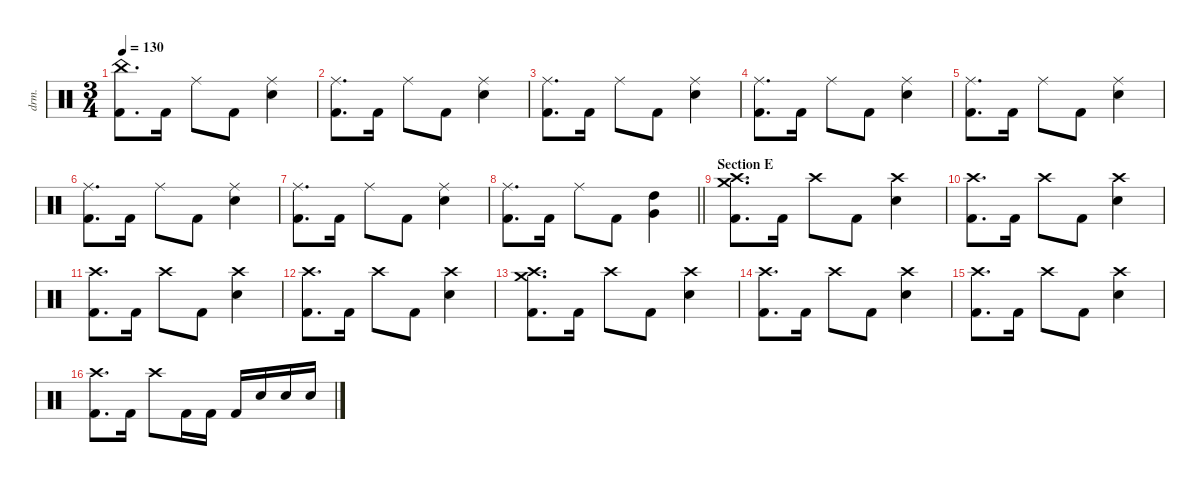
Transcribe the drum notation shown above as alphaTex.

\defaultSystemsLayout 4
\hideDynamics
\bracketExtendMode nobrackets
\otherSystemsTrackNameOrientation horizontal
\track ("Percussion" "drm.") {instrument percussion}
\staff {score}
\articulation defaults
\ts (3 4)
\tempo 130
\clef neutral
\ks c
("China (hit)" "Kick (hit) 2").8{d dy f beam Down} "Kick (hit) 2".16{beam Down} "Ride (middle)".8{beam Down} "Kick (hit) 2".8{beam Down} ("Ride (middle)" "Snare (hit) 2").4{beam Down} |
("Ride (middle)" "Kick (hit) 2").8{d beam Down} "Kick (hit) 2".16{beam Down} "Ride (middle)".8{beam Down} "Kick (hit) 2".8{beam Down} ("Ride (middle)" "Snare (hit) 2").4{beam Down} |
("Ride (middle)" "Kick (hit) 2").8{d beam Down} "Kick (hit) 2".16{beam Down} "Ride (middle)".8{beam Down} "Kick (hit) 2".8{beam Down} ("Ride (middle)" "Snare (hit) 2").4{beam Down} |
("Ride (middle)" "Kick (hit) 2").8{d beam Down} "Kick (hit) 2".16{beam Down} "Ride (middle)".8{beam Down} "Kick (hit) 2".8{beam Down} ("Ride (middle)" "Snare (hit) 2").4{beam Down} |
("Ride (middle)" "Kick (hit) 2").8{d beam Down} "Kick (hit) 2".16{beam Down} "Ride (middle)".8{beam Down} "Kick (hit) 2".8{beam Down} ("Ride (middle)" "Snare (hit) 2").4{beam Down} |
("Ride (middle)" "Kick (hit) 2").8{d beam Down} "Kick (hit) 2".16{beam Down} "Ride (middle)".8{beam Down} "Kick (hit) 2".8{beam Down} ("Ride (middle)" "Snare (hit) 2").4{beam Down} |
("Ride (middle)" "Kick (hit) 2").8{d beam Down} "Kick (hit) 2".16{beam Down} "Ride (middle)".8{beam Down} "Kick (hit) 2".8{beam Down} ("Ride (middle)" "Snare (hit) 2").4{beam Down} |
\barLineRight lightlight
("Ride (middle)" "Kick (hit) 2").8{d beam Down} "Kick (hit) 2".16{beam Down} "Ride (middle)".8{beam Down} "Kick (hit) 2".8{beam Down} ("High Tom (hit)" "Very Low Tom (hit)").4{beam Down} |
\section ("" "Section E")
("Crash medium (hit)" "Crash high (hit)" "Kick (hit) 2").8{d beam Down} "Kick (hit) 2".16{beam Down} "Crash high (hit)".8{beam Down} "Kick (hit) 2".8{beam Down} ("Crash high (hit)" "Snare (hit) 2").4{beam Down} |
("Crash high (hit)" "Kick (hit) 2").8{d beam Down} "Kick (hit) 2".16{beam Down} "Crash high (hit)".8{beam Down} "Kick (hit) 2".8{beam Down} ("Crash high (hit)" "Snare (hit) 2").4{beam Down} |
("Crash high (hit)" "Kick (hit) 2").8{d beam Down} "Kick (hit) 2".16{beam Down} "Crash high (hit)".8{beam Down} "Kick (hit) 2".8{beam Down} ("Crash high (hit)" "Snare (hit) 2").4{beam Down} |
("Crash high (hit)" "Kick (hit) 2").8{d beam Down} "Kick (hit) 2".16{beam Down} "Crash high (hit)".8{beam Down} "Kick (hit) 2".8{beam Down} ("Crash high (hit)" "Snare (hit) 2").4{beam Down} |
("Crash high (hit)" "Crash medium (hit)" "Kick (hit) 2").8{d beam Down} "Kick (hit) 2".16{beam Down} "Crash high (hit)".8{beam Down} "Kick (hit) 2".8{beam Down} ("Crash high (hit)" "Snare (hit) 2").4{beam Down} |
("Crash high (hit)" "Kick (hit) 2").8{d beam Down} "Kick (hit) 2".16{beam Down} "Crash high (hit)".8{beam Down} "Kick (hit) 2".8{beam Down} ("Crash high (hit)" "Snare (hit) 2").4{beam Down} |
("Crash high (hit)" "Kick (hit) 2").8{d beam Down} "Kick (hit) 2".16{beam Down} "Crash high (hit)".8{beam Down} "Kick (hit) 2".8{beam Down} ("Crash high (hit)" "Snare (hit) 2").4{beam Down} |
("Crash high (hit)" "Kick (hit) 2").8{d beam Down} "Kick (hit) 2".16{beam Down} "Crash high (hit)".8{beam Down} "Kick (hit) 2".16{beam Down} "Kick (hit) 2".16{beam Down} "Kick (hit) 2".16{beam Up} "Snare (hit) 2".16{beam Up} "Snare (hit) 2".16{beam Up} "Snare (hit) 2".16{beam Up}
